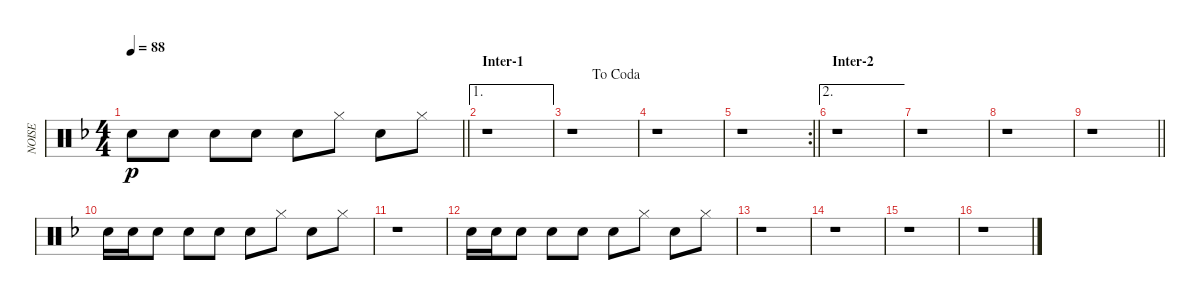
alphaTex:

\track ("NOISE" "NOISE") {instrument percussion}
\staff {score}
\articulation defaults
\ts (4 4)
\tempo 88
\clef neutral
\barLineRight lightlight
\ks dminor "Snare (hit) 2".8{dy p} "Snare (hit) 2".8 "Snare (hit) 2".8 "Snare (hit) 2".8 "Snare (hit) 2".8 "Hi-Hat (closed)".8 "Snare (hit) 2".8 "Hi-Hat (closed)".8
|
\ae 1
\section ("" "Inter-1")
r.1 |
\jump dacoda
r.1 |
r.1 |
\rc 2
\barLineRight lightlight
r.1 |
\ae 2
\section ("" "Inter-2")
r.1 |
r.1 |
r.1 |
\barLineRight lightlight
r.1 |
"Snare (hit) 2".16 "Snare (hit) 2".16 "Snare (hit) 2".8 "Snare (hit) 2".8 "Snare (hit) 2".8 "Snare (hit) 2".8 "Hi-Hat (closed)".8 "Snare (hit) 2".8 "Hi-Hat (closed)".8 |
r.1 |
"Snare (hit) 2".16 "Snare (hit) 2".16 "Snare (hit) 2".8 "Snare (hit) 2".8 "Snare (hit) 2".8 "Snare (hit) 2".8 "Hi-Hat (closed)".8 "Snare (hit) 2".8 "Hi-Hat (closed)".8 |
r.1 |
r.1 |
r.1 |
r.1
